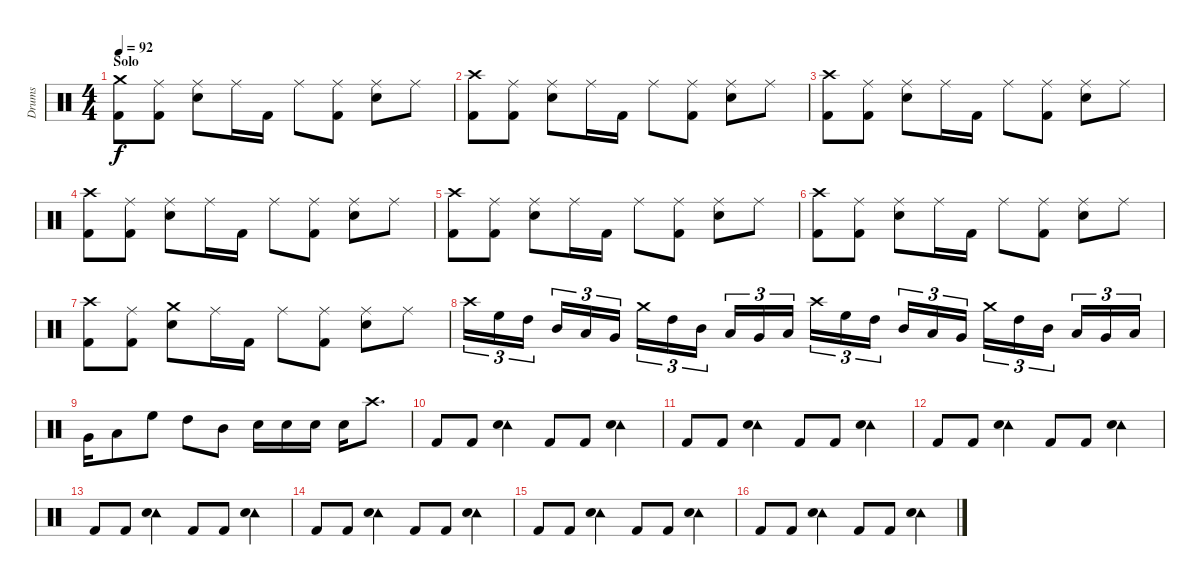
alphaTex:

\track ("Drums" "Drums") {instrument percussion}
\staff {score}
\articulation defaults
\ts (4 4)
\section ("" "Solo")
\tempo 92
\clef neutral
\ks c
("Crash medium (hit)" "Kick (hit) 2").8{dy f} ("Ride (middle)" "Kick (hit) 2").8 ("Ride (middle)" "Snare (hit) 2").8 "Ride (middle)".16 "Kick (hit) 2".16 "Ride (middle)".8 ("Ride (middle)" "Kick (hit) 2").8 ("Ride (middle)" "Snare (hit) 2").8 "Ride (middle)".8 |
("Crash high (hit)" "Kick (hit) 2").8 ("Ride (middle)" "Kick (hit) 2").8 ("Ride (middle)" "Snare (hit) 2").8 "Ride (middle)".16 "Kick (hit) 2".16 "Ride (middle)".8 ("Ride (middle)" "Kick (hit) 2").8 ("Ride (middle)" "Snare (hit) 2").8 "Ride (middle)".8 |
("Crash high (hit)" "Kick (hit) 2").8 ("Ride (middle)" "Kick (hit) 2").8 ("Ride (middle)" "Snare (hit) 2").8 "Ride (middle)".16 "Kick (hit) 2".16 "Ride (middle)".8 ("Ride (middle)" "Kick (hit) 2").8 ("Ride (middle)" "Snare (hit) 2").8 "Ride (middle)".8 |
("Crash high (hit)" "Kick (hit) 2").8 ("Ride (middle)" "Kick (hit) 2").8 ("Ride (middle)" "Snare (hit) 2").8 "Ride (middle)".16 "Kick (hit) 2".16 "Ride (middle)".8 ("Ride (middle)" "Kick (hit) 2").8 ("Ride (middle)" "Snare (hit) 2").8 "Ride (middle)".8 |
("Crash high (hit)" "Kick (hit) 2").8 ("Ride (middle)" "Kick (hit) 2").8 ("Ride (middle)" "Snare (hit) 2").8 "Ride (middle)".16 "Kick (hit) 2".16 "Ride (middle)".8 ("Ride (middle)" "Kick (hit) 2").8 ("Ride (middle)" "Snare (hit) 2").8 "Ride (middle)".8 |
("Crash high (hit)" "Kick (hit) 2").8 ("Ride (middle)" "Kick (hit) 2").8 ("Ride (middle)" "Snare (hit) 2").8 "Ride (middle)".16 "Kick (hit) 2".16 "Ride (middle)".8 ("Ride (middle)" "Kick (hit) 2").8 ("Ride (middle)" "Snare (hit) 2").8 "Ride (middle)".8 |
("Crash high (hit)" "Kick (hit) 2").8 ("Ride (middle)" "Kick (hit) 2").8 ("Crash medium (hit)" "Snare (hit) 2").8 "Ride (middle)".16 "Kick (hit) 2".16 "Ride (middle)".8 ("Ride (middle)" "Kick (hit) 2").8 ("Ride (middle)" "Snare (hit) 2").8 "Ride (middle)".8 |
"Crash high (hit)".16{tu (3 2)} "High Floor Tom (hit)".16{tu (3 2)} "High Tom (hit)".16{tu (3 2) beam splitsecondary} "Mid Tom (hit)".16{tu (3 2)} "Low Tom (hit)".16{tu (3 2)} "Very Low Tom (hit)".16{tu (3 2)} "Crash medium (hit)".16{tu (3 2)} "High Tom (hit)".16{tu (3 2)} "Mid Tom (hit)".16{tu (3 2) beam splitsecondary} "Low Tom (hit)".16{tu (3 2)} "Very Low Tom (hit)".16{tu (3 2)} "Low Floor Tom (hit)".16{tu (3 2)} "Crash high (hit)".16{tu (3 2)} "High Floor Tom (hit)".16{tu (3 2)} "High Tom (hit)".16{tu (3 2) beam splitsecondary} "Mid Tom (hit)".16{tu (3 2)} "Low Tom (hit)".16{tu (3 2)} "Very Low Tom (hit)".16{tu (3 2)} "Crash medium (hit)".16{tu (3 2)} "High Tom (hit)".16{tu (3 2)} "Mid Tom (hit)".16{tu (3 2) beam splitsecondary} "Low Tom (hit)".16{tu (3 2)} "Very Low Tom (hit)".16{tu (3 2)} "Low Floor Tom (hit)".16{tu (3 2)} |
"Very Low Tom (hit)".16 "Low Floor Tom (hit)".8 "High Floor Tom (hit)".8 "High Tom (hit)".8 "Mid Tom (hit)".8 "Snare (hit) 2".16 "Snare (hit) 2".16 "Snare (hit) 2".16 "Snare (hit) 2".16 "Crash high (hit)".8{d} |
"Kick (hit) 2".8 "Kick (hit) 2".8 ("Tambourine (hit)" "Snare (hit) 2").4 "Kick (hit) 2".8 "Kick (hit) 2".8 ("Tambourine (hit)" "Snare (hit) 2").4 |
"Kick (hit) 2".8 "Kick (hit) 2".8 ("Tambourine (hit)" "Snare (hit) 2").4 "Kick (hit) 2".8 "Kick (hit) 2".8 ("Tambourine (hit)" "Snare (hit) 2").4 |
"Kick (hit) 2".8 "Kick (hit) 2".8 ("Tambourine (hit)" "Snare (hit) 2").4 "Kick (hit) 2".8 "Kick (hit) 2".8 ("Tambourine (hit)" "Snare (hit) 2").4 |
"Kick (hit) 2".8 "Kick (hit) 2".8 ("Tambourine (hit)" "Snare (hit) 2").4 "Kick (hit) 2".8 "Kick (hit) 2".8 ("Tambourine (hit)" "Snare (hit) 2").4 |
"Kick (hit) 2".8 "Kick (hit) 2".8 ("Tambourine (hit)" "Snare (hit) 2").4 "Kick (hit) 2".8 "Kick (hit) 2".8 ("Tambourine (hit)" "Snare (hit) 2").4 |
"Kick (hit) 2".8 "Kick (hit) 2".8 ("Tambourine (hit)" "Snare (hit) 2").4 "Kick (hit) 2".8 "Kick (hit) 2".8 ("Tambourine (hit)" "Snare (hit) 2").4 |
"Kick (hit) 2".8 "Kick (hit) 2".8 ("Tambourine (hit)" "Snare (hit) 2").4 "Kick (hit) 2".8 "Kick (hit) 2".8 ("Tambourine (hit)" "Snare (hit) 2").4
